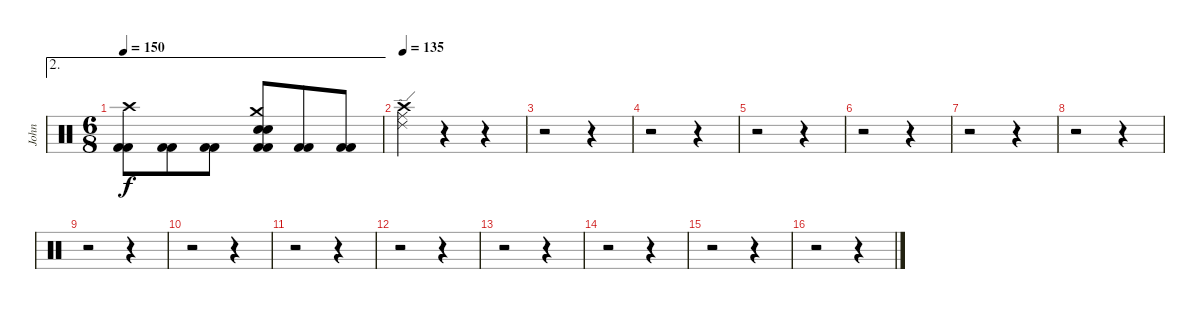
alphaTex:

\track ("John" "John") {instrument percussion}
\staff {score}
\articulation defaults
\ae 2
\ts (6 8)
\tempo 150
\clef neutral
\ks c
("Crash high (hit)" "Kick (hit) 2" "Kick (hit) 2").8{dy f} ("Kick (hit) 2" "Kick (hit) 2").8 ("Kick (hit) 2" "Kick (hit) 2").8 ("Crash medium (hit)" "Electric Snare (hit)" "Electric Snare (hit)" "Kick (hit) 2" "Kick (hit) 2").8 ("Kick (hit) 2" "Kick (hit) 2").8 ("Kick (hit) 2" "Kick (hit) 2").8 |
\tempo 135
("Crash high (hit)" "Ride (middle)" "Ride (edge) 2").4 r.4 r.4 |
r.2 r.4 |
r.2 r.4 |
r.2 r.4 |
r.2 r.4 |
r.2 r.4 |
r.2 r.4 |
r.2 r.4 |
r.2 r.4 |
r.2 r.4 |
r.2 r.4 |
r.2 r.4 |
r.2 r.4 |
r.2 r.4 |
r.2 r.4
